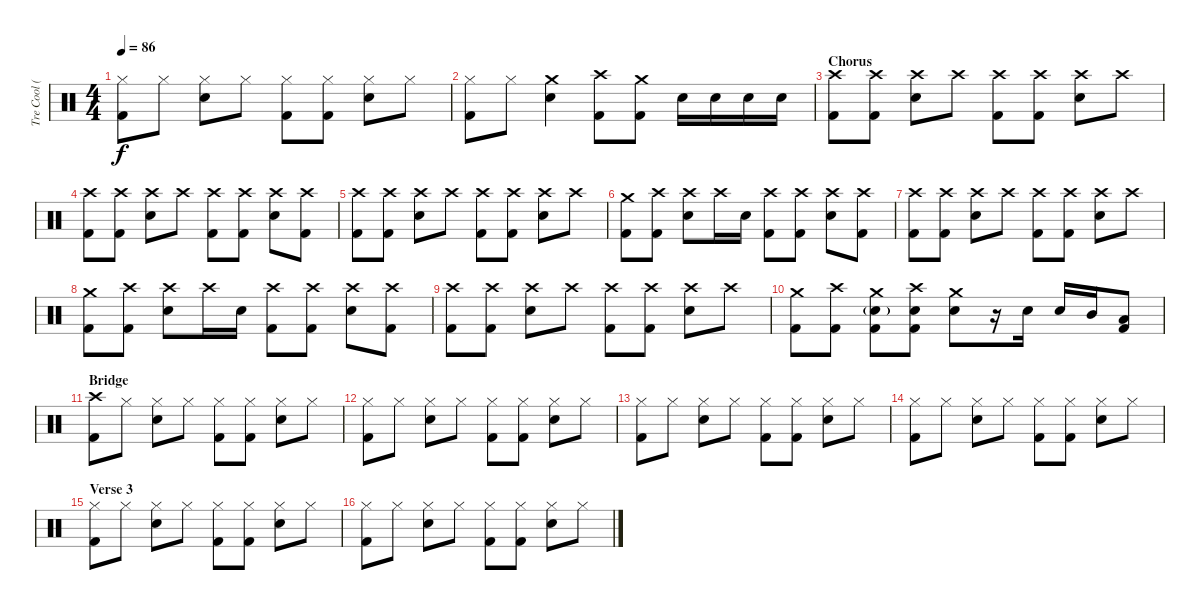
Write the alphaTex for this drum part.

\track ("Tre Cool (Drums)" "Tre Cool (") {instrument percussion}
\staff {score}
\articulation defaults
\ts (4 4)
\tempo 86
\clef neutral
\ks c
("Hi-Hat (closed)" "Kick (hit) 2").8{dy f} "Hi-Hat (closed)".8 ("Hi-Hat (closed)" "Snare (hit) 2").8 "Hi-Hat (closed)".8 ("Hi-Hat (closed)" "Kick (hit) 2").8 ("Hi-Hat (closed)" "Kick (hit) 2").8 ("Hi-Hat (closed)" "Snare (hit) 2").8 "Hi-Hat (closed)".8 |
("Hi-Hat (closed)" "Kick (hit) 2").8 "Hi-Hat (closed)".8 ("Crash medium (hit)" "Snare (hit) 2").4 ("Crash high (hit)" "Kick (hit) 2").8 ("Crash medium (hit)" "Kick (hit) 2").8 "Snare (hit) 2".16 "Snare (hit) 2".16 "Snare (hit) 2".16 "Snare (hit) 2".16 |
\section ("" "Chorus")
("Crash high (hit)" "Kick (hit) 2").8 ("Crash high (hit)" "Kick (hit) 2").8 ("Crash high (hit)" "Snare (hit) 2").8 "Crash high (hit)".8 ("Crash high (hit)" "Kick (hit) 2").8 ("Crash high (hit)" "Kick (hit) 2").8 ("Crash high (hit)" "Snare (hit) 2").8 "Crash high (hit)".8 |
("Crash high (hit)" "Kick (hit) 2").8 ("Crash high (hit)" "Kick (hit) 2").8 ("Crash high (hit)" "Snare (hit) 2").8 "Crash high (hit)".8 ("Crash high (hit)" "Kick (hit) 2").8 ("Crash high (hit)" "Kick (hit) 2").8 ("Crash high (hit)" "Snare (hit) 2").8 ("Crash high (hit)" "Kick (hit) 2").8 |
("Crash high (hit)" "Kick (hit) 2").8 ("Crash high (hit)" "Kick (hit) 2").8 ("Crash high (hit)" "Snare (hit) 2").8 "Crash high (hit)".8 ("Crash high (hit)" "Kick (hit) 2").8 ("Crash high (hit)" "Kick (hit) 2").8 ("Crash high (hit)" "Snare (hit) 2").8 "Crash high (hit)".8 |
("Crash medium (hit)" "Kick (hit) 2").8 ("Crash high (hit)" "Kick (hit) 2").8 ("Crash high (hit)" "Snare (hit) 2").8 "Crash high (hit)".16 "Snare (hit) 2".16 ("Crash high (hit)" "Kick (hit) 2").8 ("Crash high (hit)" "Kick (hit) 2").8 ("Crash high (hit)" "Snare (hit) 2").8 ("Crash high (hit)" "Kick (hit) 2").8 |
("Crash high (hit)" "Kick (hit) 2").8 ("Crash high (hit)" "Kick (hit) 2").8 ("Crash high (hit)" "Snare (hit) 2").8 "Crash high (hit)".8 ("Crash high (hit)" "Kick (hit) 2").8 ("Crash high (hit)" "Kick (hit) 2").8 ("Crash high (hit)" "Snare (hit) 2").8 "Crash high (hit)".8 |
("Crash medium (hit)" "Kick (hit) 2").8 ("Crash high (hit)" "Kick (hit) 2").8 ("Crash high (hit)" "Snare (hit) 2").8 "Crash high (hit)".16 "Snare (hit) 2".16 ("Crash high (hit)" "Kick (hit) 2").8 ("Crash high (hit)" "Kick (hit) 2").8 ("Crash high (hit)" "Snare (hit) 2").8 ("Crash high (hit)" "Kick (hit) 2").8 |
("Crash high (hit)" "Kick (hit) 2").8 ("Crash high (hit)" "Kick (hit) 2").8 ("Crash high (hit)" "Snare (hit) 2").8 "Crash high (hit)".8 ("Crash high (hit)" "Kick (hit) 2").8 ("Crash high (hit)" "Kick (hit) 2").8 ("Crash high (hit)" "Snare (hit) 2").8 "Crash high (hit)".8 |
("Crash medium (hit)" "Kick (hit) 2").8 ("Crash high (hit)" "Kick (hit) 2").8 ("Crash medium (hit)" "Snare (hit) 2"{g} "Kick (hit) 2").8 ("Crash high (hit)" "Snare (hit) 2" "Kick (hit) 2").8 ("Crash medium (hit)" "Snare (hit) 2").8 r.16 "Snare (hit) 2".16 "Snare (hit) 2".16 "Mid Tom (hit)".16 ("Low Tom (hit)" "Kick (hit) 2").8 |
\section ("" "Bridge")
("Crash high (hit)" "Kick (hit) 2").8 "Hi-Hat (closed)".8 ("Hi-Hat (closed)" "Snare (hit) 2").8 "Hi-Hat (closed)".8 ("Hi-Hat (closed)" "Kick (hit) 2").8 ("Hi-Hat (closed)" "Kick (hit) 2").8 ("Hi-Hat (closed)" "Snare (hit) 2").8 "Hi-Hat (closed)".8 |
("Hi-Hat (closed)" "Kick (hit) 2").8 "Hi-Hat (closed)".8 ("Hi-Hat (closed)" "Snare (hit) 2").8 "Hi-Hat (closed)".8 ("Hi-Hat (closed)" "Kick (hit) 2").8 ("Hi-Hat (closed)" "Kick (hit) 2").8 ("Hi-Hat (closed)" "Snare (hit) 2").8 "Hi-Hat (closed)".8 |
("Hi-Hat (closed)" "Kick (hit) 2").8 "Hi-Hat (closed)".8 ("Hi-Hat (closed)" "Snare (hit) 2").8 "Hi-Hat (closed)".8 ("Hi-Hat (closed)" "Kick (hit) 2").8 ("Hi-Hat (closed)" "Kick (hit) 2").8 ("Hi-Hat (closed)" "Snare (hit) 2").8 "Hi-Hat (closed)".8 |
("Hi-Hat (closed)" "Kick (hit) 2").8 "Hi-Hat (closed)".8 ("Hi-Hat (closed)" "Snare (hit) 2").8 "Hi-Hat (closed)".8 ("Hi-Hat (closed)" "Kick (hit) 2").8 ("Hi-Hat (closed)" "Kick (hit) 2").8 ("Hi-Hat (closed)" "Snare (hit) 2").8 "Hi-Hat (closed)".8 |
\section ("" "Verse 3")
("Hi-Hat (closed)" "Kick (hit) 2").8 "Hi-Hat (closed)".8 ("Hi-Hat (closed)" "Snare (hit) 2").8 "Hi-Hat (closed)".8 ("Hi-Hat (closed)" "Kick (hit) 2").8 ("Hi-Hat (closed)" "Kick (hit) 2").8 ("Hi-Hat (closed)" "Snare (hit) 2").8 "Hi-Hat (closed)".8 |
("Hi-Hat (closed)" "Kick (hit) 2").8 "Hi-Hat (closed)".8 ("Hi-Hat (closed)" "Snare (hit) 2").8 "Hi-Hat (closed)".8 ("Hi-Hat (closed)" "Kick (hit) 2").8 ("Hi-Hat (closed)" "Kick (hit) 2").8 ("Hi-Hat (closed)" "Snare (hit) 2").8 "Hi-Hat (closed)".8
